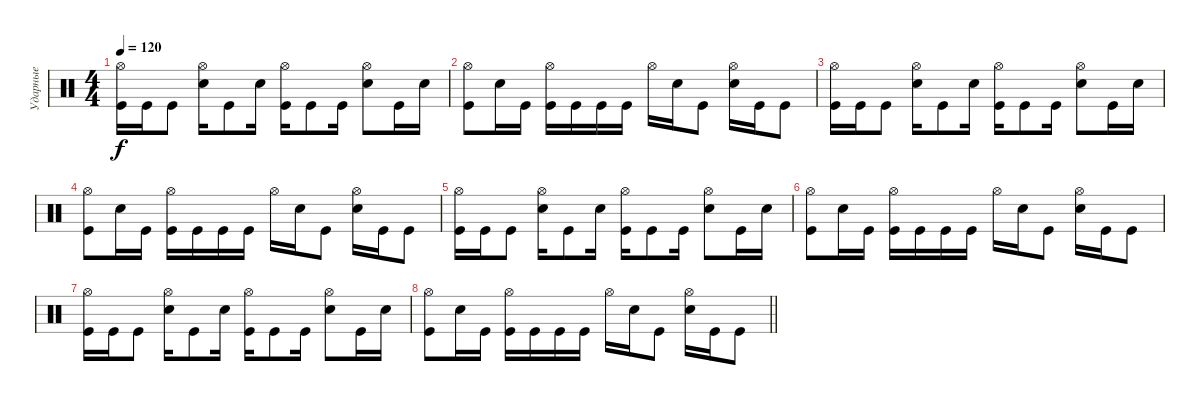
\track ("Ударные" "Ударные") {instrument percussion}
\staff {score}
\articulation defaults
\ts (4 4)
\tempo 120
\clef neutral
\ks c
("Hi-Hat (open)" "Kick (hit)").16{dy f} "Kick (hit)".16 "Kick (hit)".8 ("Hi-Hat (open)" "Electric Snare (hit)").16 "Kick (hit)".8 "Electric Snare (hit)".16 ("Hi-Hat (open)" "Kick (hit)").16 "Kick (hit)".8 "Kick (hit)".16 ("Hi-Hat (open)" "Electric Snare (hit)").8 "Kick (hit)".16 "Electric Snare (hit)".16 |
("Hi-Hat (open)" "Kick (hit)").8 "Electric Snare (hit)".16 "Kick (hit)".16 ("Hi-Hat (open)" "Kick (hit)").16 "Kick (hit)".16 "Kick (hit)".16 "Kick (hit)".16 "Hi-Hat (open)".16 "Electric Snare (hit)".16 "Kick (hit)".8 ("Hi-Hat (open)" "Electric Snare (hit)").16 "Kick (hit)".16 "Kick (hit)".8 |
("Hi-Hat (open)" "Kick (hit)").16 "Kick (hit)".16 "Kick (hit)".8 ("Hi-Hat (open)" "Electric Snare (hit)").16 "Kick (hit)".8 "Electric Snare (hit)".16 ("Hi-Hat (open)" "Kick (hit)").16 "Kick (hit)".8 "Kick (hit)".16 ("Hi-Hat (open)" "Electric Snare (hit)").8 "Kick (hit)".16 "Electric Snare (hit)".16 |
("Hi-Hat (open)" "Kick (hit)").8 "Electric Snare (hit)".16 "Kick (hit)".16 ("Hi-Hat (open)" "Kick (hit)").16 "Kick (hit)".16 "Kick (hit)".16 "Kick (hit)".16 "Hi-Hat (open)".16 "Electric Snare (hit)".16 "Kick (hit)".8 ("Hi-Hat (open)" "Electric Snare (hit)").16 "Kick (hit)".16 "Kick (hit)".8 |
("Hi-Hat (open)" "Kick (hit)").16 "Kick (hit)".16 "Kick (hit)".8 ("Hi-Hat (open)" "Electric Snare (hit)").16 "Kick (hit)".8 "Electric Snare (hit)".16 ("Hi-Hat (open)" "Kick (hit)").16 "Kick (hit)".8 "Kick (hit)".16 ("Hi-Hat (open)" "Electric Snare (hit)").8 "Kick (hit)".16 "Electric Snare (hit)".16 |
("Hi-Hat (open)" "Kick (hit)").8 "Electric Snare (hit)".16 "Kick (hit)".16 ("Hi-Hat (open)" "Kick (hit)").16 "Kick (hit)".16 "Kick (hit)".16 "Kick (hit)".16 "Hi-Hat (open)".16 "Electric Snare (hit)".16 "Kick (hit)".8 ("Hi-Hat (open)" "Electric Snare (hit)").16 "Kick (hit)".16 "Kick (hit)".8 |
("Hi-Hat (open)" "Kick (hit)").16 "Kick (hit)".16 "Kick (hit)".8 ("Hi-Hat (open)" "Electric Snare (hit)").16 "Kick (hit)".8 "Electric Snare (hit)".16 ("Hi-Hat (open)" "Kick (hit)").16 "Kick (hit)".8 "Kick (hit)".16 ("Hi-Hat (open)" "Electric Snare (hit)").8 "Kick (hit)".16 "Electric Snare (hit)".16 |
\barLineRight lightlight
("Hi-Hat (open)" "Kick (hit)").8 "Electric Snare (hit)".16 "Kick (hit)".16 ("Hi-Hat (open)" "Kick (hit)").16 "Kick (hit)".16 "Kick (hit)".16 "Kick (hit)".16 "Hi-Hat (open)".16 "Electric Snare (hit)".16 "Kick (hit)".8 ("Hi-Hat (open)" "Electric Snare (hit)").16 "Kick (hit)".16 "Kick (hit)".8
